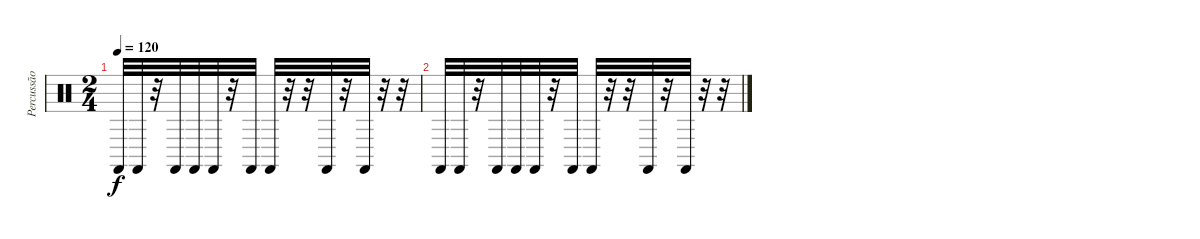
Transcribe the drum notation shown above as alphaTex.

\track ("Percussão" "Percussão") {instrument percussion}
\staff {score}
\articulation defaults
\ts (2 4)
\tempo 120
\clef neutral
\ks c "Castanets (hit)".32{dy f} "Castanets (hit)".32
r.32 "Castanets (hit)".32 "Castanets (hit)".32 "Castanets (hit)".32 r.32 "Castanets (hit)".32 "Castanets (hit)".32 r.32 r.32 "Castanets (hit)".32 r.32 "Castanets (hit)".32 r.32 r.32 |
"Castanets (hit)".32 "Castanets (hit)".32 r.32 "Castanets (hit)".32 "Castanets (hit)".32 "Castanets (hit)".32 r.32 "Castanets (hit)".32 "Castanets (hit)".32 r.32 r.32 "Castanets (hit)".32 r.32 "Castanets (hit)".32 r.32 r.32
